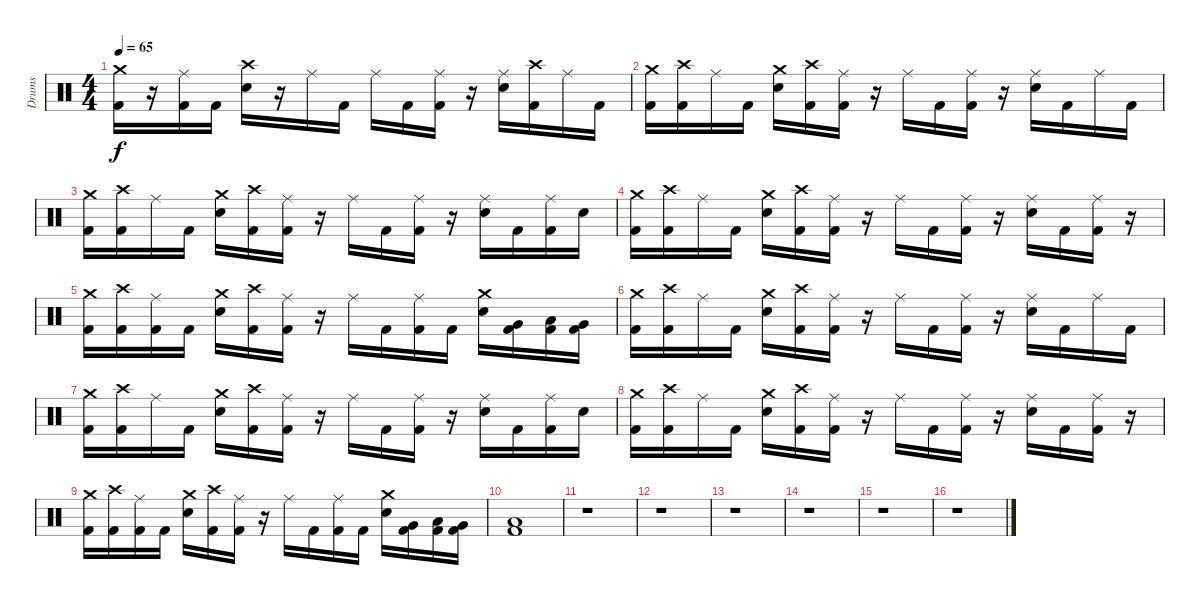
\track ("Drums" "Drums") {instrument percussion}
\staff {score}
\articulation defaults
\ts (4 4)
\tempo 65
\clef neutral
\ks c
("Crash medium (hit)" "Kick (hit) 2").16{dy f} r.16 ("Ride (middle)" "Kick (hit) 2").16 "Kick (hit) 2".16 ("Crash high (hit)" "Electric Snare (hit)").16 r.16 "Ride (middle)".16 "Kick (hit) 2".16 "Ride (middle)".16 "Kick (hit) 2".16 ("Ride (middle)" "Kick (hit) 2").16 r.16 ("Ride (middle)" "Electric Snare (hit)").16 ("Crash high (hit)" "Kick (hit) 2").16 "Ride (middle)".16 "Kick (hit) 2".16 |
\section ("" "")
("Crash medium (hit)" "Kick (hit) 2").16 ("Crash high (hit)" "Kick (hit) 2").16 "Ride (middle)".16 "Kick (hit) 2".16 ("Crash medium (hit)" "Electric Snare (hit)").16 ("Crash high (hit)" "Kick (hit) 2").16 ("Ride (middle)" "Kick (hit) 2").16 r.16 "Ride (middle)".16 "Kick (hit) 2".16 ("Ride (middle)" "Kick (hit) 2").16 r.16 ("Ride (middle)" "Electric Snare (hit)").16 "Kick (hit) 2".16 "Ride (middle)".16 "Kick (hit) 2".16 |
("Crash medium (hit)" "Kick (hit) 2").16 ("Crash high (hit)" "Kick (hit) 2").16 "Ride (middle)".16 "Kick (hit) 2".16 ("Crash medium (hit)" "Electric Snare (hit)").16 ("Crash high (hit)" "Kick (hit) 2").16 ("Ride (middle)" "Kick (hit) 2").16 r.16 "Ride (middle)".16 "Kick (hit) 2".16 ("Ride (middle)" "Kick (hit) 2").16 r.16 ("Ride (middle)" "Electric Snare (hit)").16 "Kick (hit) 2".16 ("Ride (middle)" "Kick (hit) 2").16 "Electric Snare (hit)".16 |
("Crash medium (hit)" "Kick (hit) 2").16 ("Crash high (hit)" "Kick (hit) 2").16 "Ride (middle)".16 "Kick (hit) 2".16 ("Crash medium (hit)" "Electric Snare (hit)").16 ("Crash high (hit)" "Kick (hit) 2").16 ("Ride (middle)" "Kick (hit) 2").16 r.16 "Ride (middle)".16 "Kick (hit) 2".16 ("Ride (middle)" "Kick (hit) 2").16 r.16 ("Ride (middle)" "Electric Snare (hit)").16 "Kick (hit) 2".16 ("Ride (middle)" "Kick (hit) 2").16 r.16 |
("Crash medium (hit)" "Kick (hit) 2").16 ("Crash high (hit)" "Kick (hit) 2").16 ("Ride (middle)" "Kick (hit) 2").16 "Kick (hit) 2".16 ("Crash medium (hit)" "Electric Snare (hit)").16 ("Crash high (hit)" "Kick (hit) 2").16 ("Ride (middle)" "Kick (hit) 2").16 r.16 "Ride (middle)".16 "Kick (hit) 2".16 ("Ride (middle)" "Kick (hit) 2").16 "Kick (hit) 2".16 ("Crash medium (hit)" "Electric Snare (hit)").16 ("Very Low Tom (hit)" "Kick (hit) 2").16 ("Low Tom (hit)" "Kick (hit) 2").16 ("Very Low Tom (hit)" "Kick (hit) 2").16 |
("Crash medium (hit)" "Kick (hit) 2").16 ("Crash high (hit)" "Kick (hit) 2").16 "Ride (middle)".16 "Kick (hit) 2".16 ("Crash medium (hit)" "Electric Snare (hit)").16 ("Crash high (hit)" "Kick (hit) 2").16 ("Ride (middle)" "Kick (hit) 2").16 r.16 "Ride (middle)".16 "Kick (hit) 2".16 ("Ride (middle)" "Kick (hit) 2").16 r.16 ("Ride (middle)" "Electric Snare (hit)").16 "Kick (hit) 2".16 "Ride (middle)".16 "Kick (hit) 2".16 |
("Crash medium (hit)" "Kick (hit) 2").16 ("Crash high (hit)" "Kick (hit) 2").16 "Ride (middle)".16 "Kick (hit) 2".16 ("Crash medium (hit)" "Electric Snare (hit)").16 ("Crash high (hit)" "Kick (hit) 2").16 ("Ride (middle)" "Kick (hit) 2").16 r.16 "Ride (middle)".16 "Kick (hit) 2".16 ("Ride (middle)" "Kick (hit) 2").16 r.16 ("Ride (middle)" "Electric Snare (hit)").16 "Kick (hit) 2".16 ("Ride (middle)" "Kick (hit) 2").16 "Electric Snare (hit)".16 |
("Crash medium (hit)" "Kick (hit) 2").16 ("Crash high (hit)" "Kick (hit) 2").16 "Ride (middle)".16 "Kick (hit) 2".16 ("Crash medium (hit)" "Electric Snare (hit)").16 ("Crash high (hit)" "Kick (hit) 2").16 ("Ride (middle)" "Kick (hit) 2").16 r.16 "Ride (middle)".16 "Kick (hit) 2".16 ("Ride (middle)" "Kick (hit) 2").16 r.16 ("Ride (middle)" "Electric Snare (hit)").16 "Kick (hit) 2".16 ("Ride (middle)" "Kick (hit) 2").16 r.16 |
("Crash medium (hit)" "Kick (hit) 2").16 ("Crash high (hit)" "Kick (hit) 2").16 ("Ride (middle)" "Kick (hit) 2").16 "Kick (hit) 2".16 ("Crash medium (hit)" "Electric Snare (hit)").16 ("Crash high (hit)" "Kick (hit) 2").16 ("Ride (middle)" "Kick (hit) 2").16 r.16 "Ride (middle)".16 "Kick (hit) 2".16 ("Ride (middle)" "Kick (hit) 2").16 "Kick (hit) 2".16 ("Crash medium (hit)" "Electric Snare (hit)").16 ("Very Low Tom (hit)" "Kick (hit) 2").16 ("Low Tom (hit)" "Kick (hit) 2").16 ("Very Low Tom (hit)" "Kick (hit) 2").16 |
\section ("" "")
("Low Floor Tom (hit)" "Kick (hit) 2").1 |
r.1 |
r.1 |
r.1 |
r.1 |
r.1 |
r.1
